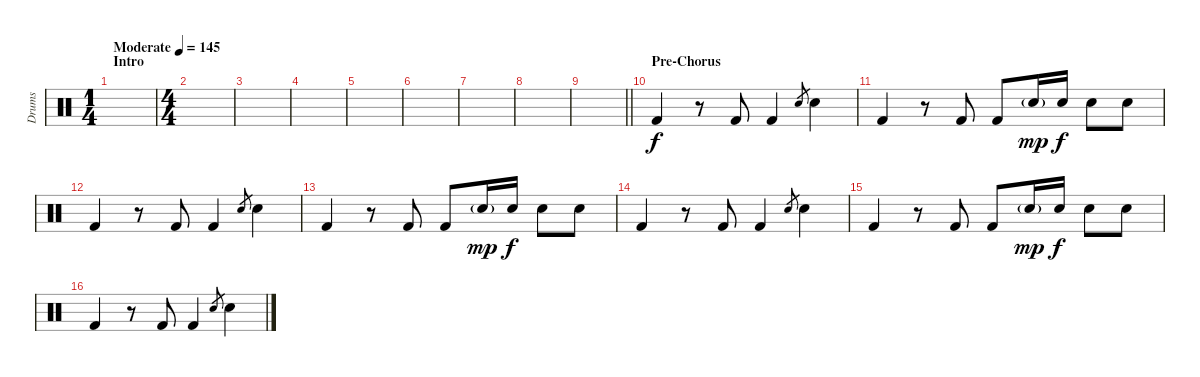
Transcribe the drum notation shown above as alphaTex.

\track ("Drums" "Drums") {instrument percussion}
\staff {score}
\articulation defaults
\ts (1 4)
\section ("" "Intro")
\tempo (145 "Moderate")
\clef neutral
\ks c
|
\ts (4 4)
|
|
|
|
|
|
|
\barLineRight lightlight
|
\section ("" "Pre-Chorus")
"Kick (hit) 2".4 r.8 "Kick (hit) 2".8 "Kick (hit) 2".4 "Electric Snare (hit)".8{gr} "Electric Snare (hit)".4 |
"Kick (hit) 2".4 r.8 "Kick (hit) 2".8 "Kick (hit) 2".8 "Electric Snare (hit)"{g}.16{dy mp} "Electric Snare (hit)".16{dy f} "Electric Snare (hit)".8 "Electric Snare (hit)".8 |
"Kick (hit) 2".4 r.8 "Kick (hit) 2".8 "Kick (hit) 2".4 "Electric Snare (hit)".8{gr} "Electric Snare (hit)".4 |
"Kick (hit) 2".4 r.8 "Kick (hit) 2".8 "Kick (hit) 2".8 "Electric Snare (hit)"{g}.16{dy mp} "Electric Snare (hit)".16{dy f} "Electric Snare (hit)".8 "Electric Snare (hit)".8 |
"Kick (hit) 2".4 r.8 "Kick (hit) 2".8 "Kick (hit) 2".4 "Electric Snare (hit)".8{gr} "Electric Snare (hit)".4 |
"Kick (hit) 2".4 r.8 "Kick (hit) 2".8 "Kick (hit) 2".8 "Electric Snare (hit)"{g}.16{dy mp} "Electric Snare (hit)".16{dy f} "Electric Snare (hit)".8 "Electric Snare (hit)".8 |
"Kick (hit) 2".4 r.8 "Kick (hit) 2".8 "Kick (hit) 2".4 "Electric Snare (hit)".8{gr} "Electric Snare (hit)".4
